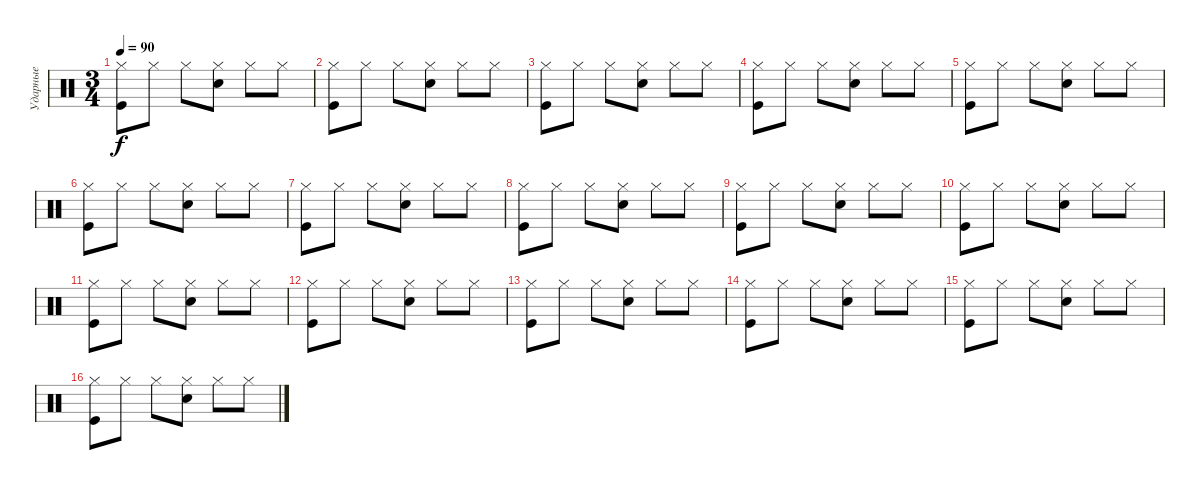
\track ("Ударные" "Ударные") {instrument percussion}
\staff {score}
\articulation defaults
\ts (3 4)
\tempo 90
\clef neutral
\ks c
("Kick (hit)" "Hi-Hat (closed)").8{dy f} "Hi-Hat (closed)".8 "Hi-Hat (closed)".8 ("Snare (hit) 2" "Hi-Hat (closed)").8 "Hi-Hat (closed)".8 "Hi-Hat (closed)".8 |
("Kick (hit)" "Hi-Hat (closed)").8 "Hi-Hat (closed)".8 "Hi-Hat (closed)".8 ("Snare (hit) 2" "Hi-Hat (closed)").8 "Hi-Hat (closed)".8 "Hi-Hat (closed)".8 |
("Kick (hit)" "Hi-Hat (closed)").8 "Hi-Hat (closed)".8 "Hi-Hat (closed)".8 ("Snare (hit) 2" "Hi-Hat (closed)").8 "Hi-Hat (closed)".8 "Hi-Hat (closed)".8 |
("Kick (hit)" "Hi-Hat (closed)").8 "Hi-Hat (closed)".8 "Hi-Hat (closed)".8 ("Snare (hit) 2" "Hi-Hat (closed)").8 "Hi-Hat (closed)".8 "Hi-Hat (closed)".8 |
("Kick (hit)" "Hi-Hat (closed)").8 "Hi-Hat (closed)".8 "Hi-Hat (closed)".8 ("Snare (hit) 2" "Hi-Hat (closed)").8 "Hi-Hat (closed)".8 "Hi-Hat (closed)".8 |
("Kick (hit)" "Hi-Hat (closed)").8 "Hi-Hat (closed)".8 "Hi-Hat (closed)".8 ("Snare (hit) 2" "Hi-Hat (closed)").8 "Hi-Hat (closed)".8 "Hi-Hat (closed)".8 |
("Kick (hit)" "Hi-Hat (closed)").8 "Hi-Hat (closed)".8 "Hi-Hat (closed)".8 ("Snare (hit) 2" "Hi-Hat (closed)").8 "Hi-Hat (closed)".8 "Hi-Hat (closed)".8 |
("Kick (hit)" "Hi-Hat (closed)").8 "Hi-Hat (closed)".8 "Hi-Hat (closed)".8 ("Snare (hit) 2" "Hi-Hat (closed)").8 "Hi-Hat (closed)".8 "Hi-Hat (closed)".8 |
("Kick (hit)" "Hi-Hat (closed)").8 "Hi-Hat (closed)".8 "Hi-Hat (closed)".8 ("Snare (hit) 2" "Hi-Hat (closed)").8 "Hi-Hat (closed)".8 "Hi-Hat (closed)".8 |
("Kick (hit)" "Hi-Hat (closed)").8 "Hi-Hat (closed)".8 "Hi-Hat (closed)".8 ("Snare (hit) 2" "Hi-Hat (closed)").8 "Hi-Hat (closed)".8 "Hi-Hat (closed)".8 |
("Kick (hit)" "Hi-Hat (closed)").8 "Hi-Hat (closed)".8 "Hi-Hat (closed)".8 ("Snare (hit) 2" "Hi-Hat (closed)").8 "Hi-Hat (closed)".8 "Hi-Hat (closed)".8 |
("Kick (hit)" "Hi-Hat (closed)").8 "Hi-Hat (closed)".8 "Hi-Hat (closed)".8 ("Snare (hit) 2" "Hi-Hat (closed)").8 "Hi-Hat (closed)".8 "Hi-Hat (closed)".8 |
("Kick (hit)" "Hi-Hat (closed)").8 "Hi-Hat (closed)".8 "Hi-Hat (closed)".8 ("Snare (hit) 2" "Hi-Hat (closed)").8 "Hi-Hat (closed)".8 "Hi-Hat (closed)".8 |
("Kick (hit)" "Hi-Hat (closed)").8 "Hi-Hat (closed)".8 "Hi-Hat (closed)".8 ("Snare (hit) 2" "Hi-Hat (closed)").8 "Hi-Hat (closed)".8 "Hi-Hat (closed)".8 |
("Kick (hit)" "Hi-Hat (closed)").8 "Hi-Hat (closed)".8 "Hi-Hat (closed)".8 ("Snare (hit) 2" "Hi-Hat (closed)").8 "Hi-Hat (closed)".8 "Hi-Hat (closed)".8 |
("Kick (hit)" "Hi-Hat (closed)").8 "Hi-Hat (closed)".8 "Hi-Hat (closed)".8 ("Snare (hit) 2" "Hi-Hat (closed)").8 "Hi-Hat (closed)".8 "Hi-Hat (closed)".8
